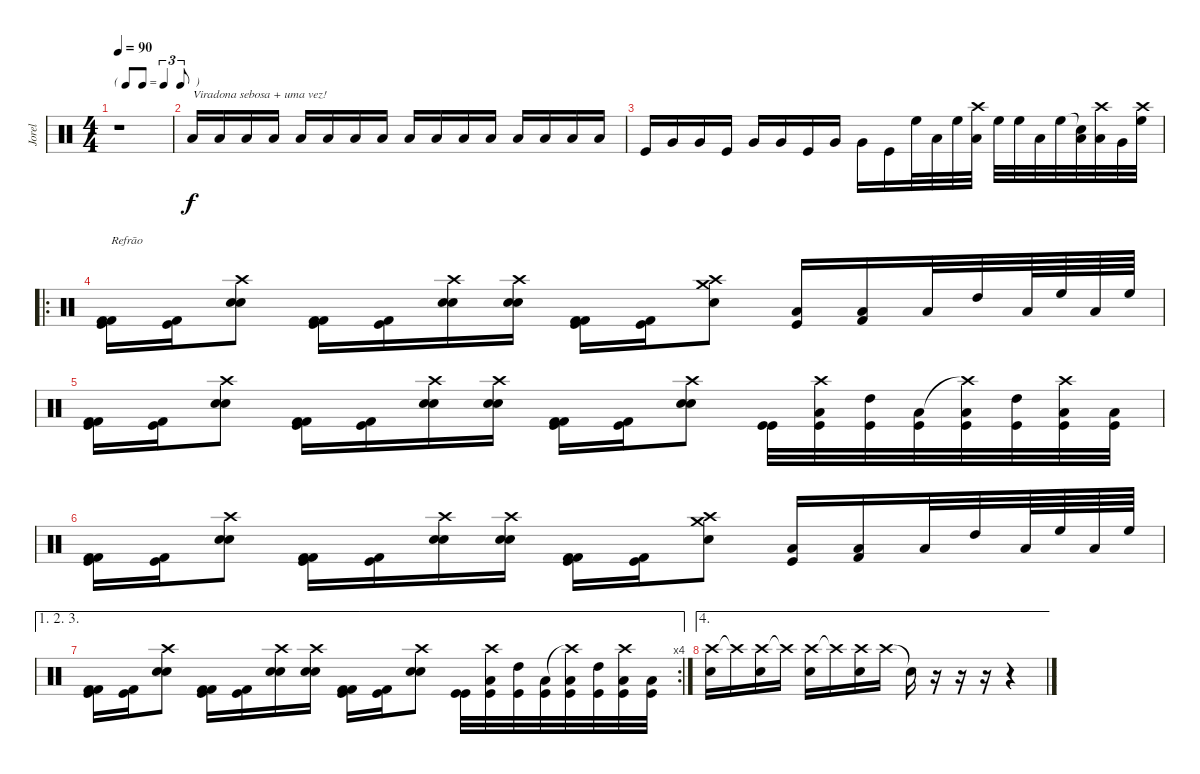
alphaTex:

\track ("Jorel" "Jorel") {instrument percussion}
\staff {score}
\articulation defaults
\ts (4 4)
\tf triplet8th
\tempo 90
\clef neutral
\ks c
r.1{dy f} |
"Low Tom (hit)".16{txt "Viradona sebosa + uma vez!"} "Low Tom (hit)".16 "Low Tom (hit)".16 "Low Tom (hit)".16 "Low Tom (hit)".16 "Low Tom (hit)".16 "Low Tom (hit)".16 "Low Tom (hit)".16 "Low Tom (hit)".16 "Low Tom (hit)".16 "Low Tom (hit)".16 "Low Tom (hit)".16 "Low Tom (hit)".16 "Low Tom (hit)".16 "Low Tom (hit)".16 "Low Tom (hit)".16 |
"Kick (hit)".16 "Very Low Tom (hit)".16 "Very Low Tom (hit)".16 "Kick (hit)".16 "Very Low Tom (hit)".16 "Very Low Tom (hit)".16 "Kick (hit)".16 "Very Low Tom (hit)".16 "Very Low Tom (hit)".16 "Kick (hit)".16 "High Floor Tom (hit)".32 "Low Tom (hit)".32 "High Floor Tom (hit)".32 ("Crash high (hit)" "Low Tom (hit)").32 "High Floor Tom (hit)".32 "High Floor Tom (hit)".32 "Low Tom (hit)".32 "High Floor Tom (hit)".32 ("Snare (hit)"{t} "Low Tom (hit)").32 ("Crash high (hit)" "Low Tom (hit)").32 "Very Low Tom (hit)".32 ("Crash high (hit)" "High Floor Tom (hit)").32 |
\ro
("Kick (hit) 2" "Kick (hit)" "Kick (hit) 2").16{txt "Refrão"} ("Kick (hit) 2" "Kick (hit)").16 ("Crash high (hit)" "Electric Snare (hit)" "Snare (hit) 2").8 ("Kick (hit) 2" "Kick (hit)" "Kick (hit) 2").16 ("Kick (hit) 2" "Kick (hit)").16 ("Crash high (hit)" "Electric Snare (hit)" "Snare (hit) 2").16 ("Crash high (hit)" "Electric Snare (hit)" "Snare (hit) 2").16 ("Kick (hit) 2" "Kick (hit)" "Kick (hit) 2").16 ("Kick (hit) 2" "Kick (hit)").16 ("Crash high (hit)" "Electric Snare (hit)" "Crash medium (hit)").8 ("Low Tom (hit)" "Kick (hit)").16 ("Low Floor Tom (hit)" "Kick (hit) 2").16 "Low Tom (hit)".32 "High Tom (hit)".32 "Low Tom (hit)".64 "High Floor Tom (hit)".64 "Low Tom (hit)".64 "High Floor Tom (hit)".64 |
("Kick (hit) 2" "Kick (hit)" "Kick (hit) 2").16 ("Kick (hit) 2" "Kick (hit)").16 ("Crash high (hit)" "Electric Snare (hit)" "Snare (hit) 2").8 ("Kick (hit) 2" "Kick (hit)" "Kick (hit) 2").16 ("Kick (hit) 2" "Kick (hit)").16 ("Crash high (hit)" "Electric Snare (hit)" "Snare (hit) 2").16 ("Crash high (hit)" "Electric Snare (hit)" "Snare (hit) 2").16 ("Kick (hit) 2" "Kick (hit)" "Kick (hit) 2").16 ("Kick (hit) 2" "Kick (hit)").16 ("Crash high (hit)" "Electric Snare (hit)" "Snare (hit) 2").8 ("Kick (hit)" "Kick (hit)").32 ("Crash high (hit)" "Low Tom (hit)" "Kick (hit)").32 ("High Tom (hit)" "Kick (hit)").32 ("Low Tom (hit)" "Kick (hit)").32 ("Crash high (hit)"{t} "Low Tom (hit)" "Kick (hit)").32 ("High Tom (hit)" "Kick (hit)").32 ("Crash high (hit)" "Low Tom (hit)" "Kick (hit)").32 ("Low Tom (hit)" "Kick (hit)").32 |
("Kick (hit) 2" "Kick (hit)" "Kick (hit) 2").16 ("Kick (hit) 2" "Kick (hit)").16 ("Crash high (hit)" "Electric Snare (hit)" "Snare (hit) 2").8 ("Kick (hit) 2" "Kick (hit)" "Kick (hit) 2").16 ("Kick (hit) 2" "Kick (hit)").16 ("Crash high (hit)" "Electric Snare (hit)" "Snare (hit) 2").16 ("Crash high (hit)" "Electric Snare (hit)" "Snare (hit) 2").16 ("Kick (hit) 2" "Kick (hit)" "Kick (hit) 2").16 ("Kick (hit) 2" "Kick (hit)").16 ("Crash high (hit)" "Electric Snare (hit)" "Crash medium (hit)").8 ("Low Tom (hit)" "Kick (hit)").16 ("Low Floor Tom (hit)" "Kick (hit) 2").16 "Low Tom (hit)".32 "High Tom (hit)".32 "Low Tom (hit)".64 "High Floor Tom (hit)".64 "Low Tom (hit)".64 "High Floor Tom (hit)".64 |
\ae (1 2 3)
\rc 4
("Kick (hit) 2" "Kick (hit)" "Kick (hit) 2").16 ("Kick (hit) 2" "Kick (hit)").16 ("Crash high (hit)" "Electric Snare (hit)" "Snare (hit) 2").8 ("Kick (hit) 2" "Kick (hit)" "Kick (hit) 2").16 ("Kick (hit) 2" "Kick (hit)").16 ("Crash high (hit)" "Electric Snare (hit)" "Snare (hit) 2").16 ("Crash high (hit)" "Electric Snare (hit)" "Snare (hit) 2").16 ("Kick (hit) 2" "Kick (hit)" "Kick (hit) 2").16 ("Kick (hit) 2" "Kick (hit)").16 ("Crash high (hit)" "Electric Snare (hit)" "Snare (hit) 2").8 ("Kick (hit)" "Kick (hit)").32 ("Crash high (hit)" "Low Tom (hit)" "Kick (hit)").32 ("High Tom (hit)" "Kick (hit)").32 ("Low Tom (hit)" "Kick (hit)").32 ("Crash high (hit)"{t} "Low Tom (hit)" "Kick (hit)").32 ("High Tom (hit)" "Kick (hit)").32 ("Crash high (hit)" "Low Tom (hit)" "Kick (hit)").32 ("Low Tom (hit)" "Kick (hit)").32 |
\ae 4
("Crash high (hit)" "Electric Snare (hit)").16 "Crash high (hit)"{t}.16 ("Crash high (hit)" "Electric Snare (hit)").16 "Crash high (hit)"{t}.16 ("Crash high (hit)" "Electric Snare (hit)").16 "Crash high (hit)"{t}.16 ("Crash high (hit)" "Snare (hit) 2").16 "Crash high (hit)".16 "Snare (hit)"{t}.16 r.16 r.16 r.16 r.4
